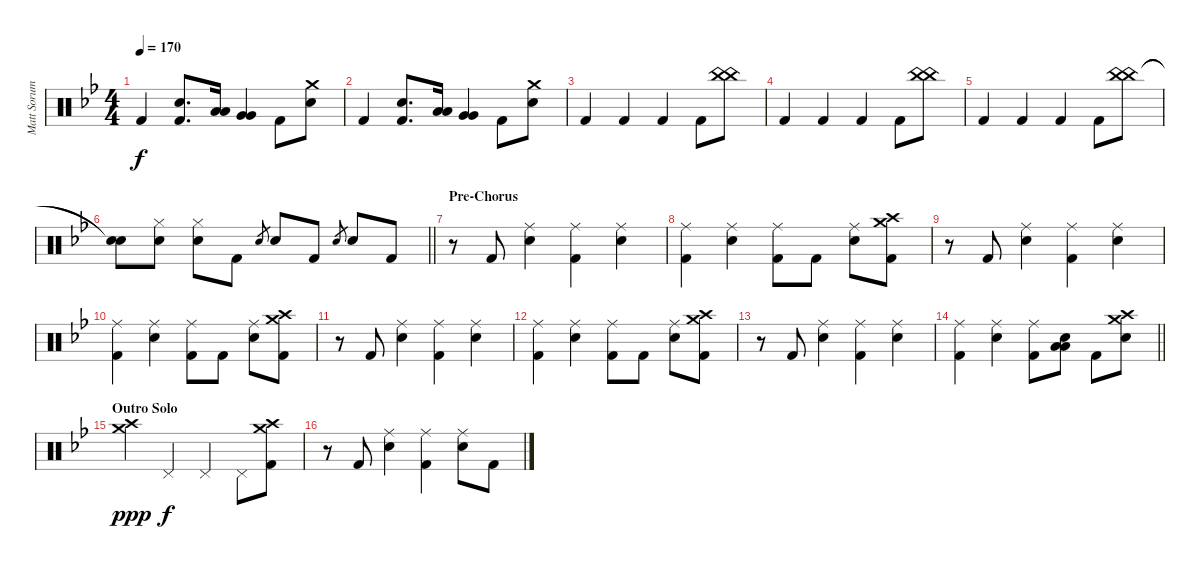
\track ("Matt Sorum - Drums" "Matt Sorum") {instrument percussion}
\staff {score}
\articulation defaults
\ts (4 4)
\tempo 170
\clef neutral
\ks bb "Kick (hit) 2".4{dy f}
("Snare (hit) 2" "Kick (hit) 2").8{d} ("Low Tom (hit)" "Low Tom (hit)").16 ("Very Low Tom (hit)" "Very Low Tom (hit)").4 "Kick (hit) 2".8 ("Crash medium (hit)" "Snare (hit) 2").8 |
"Kick (hit) 2".4 ("Snare (hit) 2" "Kick (hit) 2").8{d} ("Low Tom (hit)" "Low Tom (hit)").16 ("Very Low Tom (hit)" "Very Low Tom (hit)").4 "Kick (hit) 2".8 ("Crash medium (hit)" "Snare (hit) 2").8 |
"Kick (hit) 2".4 "Kick (hit) 2".4 "Kick (hit) 2".4 "Kick (hit) 2".8 ("China (hit)" "China (hit)").8 |
"Kick (hit) 2".4 "Kick (hit) 2".4 "Kick (hit) 2".4 "Kick (hit) 2".8 ("China (hit)" "China (hit)").8 |
"Kick (hit) 2".4 "Kick (hit) 2".4 "Kick (hit) 2".4 "Kick (hit) 2".8 ("China (hit)" "China (hit)").8 |
\barLineRight lightlight
("Snare (hit)"{t} "Snare (hit)"{t}).8 ("Hi-Hat (closed)" "Snare (hit) 2").8 ("Hi-Hat (closed)" "Snare (hit) 2").8 "Kick (hit) 2".8 "Snare (hit) 2".8{gr} "Snare (hit) 2".8 "Kick (hit) 2".8 "Snare (hit) 2".8{gr} "Snare (hit) 2".8 "Kick (hit) 2".8 |
\section ("" "Pre-Chorus")
r.8 "Kick (hit) 2".8 ("Ride (middle)" "Snare (hit) 2").4 ("Ride (middle)" "Kick (hit) 2").4 ("Ride (middle)" "Snare (hit) 2").4 |
("Ride (middle)" "Kick (hit) 2").4 ("Ride (middle)" "Snare (hit) 2").4 ("Ride (middle)" "Kick (hit) 2").8 "Kick (hit) 2".8 ("Ride (middle)" "Snare (hit) 2").8 ("Crash medium (hit)" "Crash high (hit)" "Kick (hit) 2").8 |
r.8 "Kick (hit) 2".8 ("Ride (middle)" "Snare (hit) 2").4 ("Ride (middle)" "Kick (hit) 2").4 ("Ride (middle)" "Snare (hit) 2").4 |
("Ride (middle)" "Kick (hit) 2").4 ("Ride (middle)" "Snare (hit) 2").4 ("Ride (middle)" "Kick (hit) 2").8 "Kick (hit) 2".8 ("Ride (middle)" "Snare (hit) 2").8 ("Crash medium (hit)" "Crash high (hit)" "Kick (hit) 2").8 |
r.8 "Kick (hit) 2".8 ("Ride (middle)" "Snare (hit) 2").4 ("Ride (middle)" "Kick (hit) 2").4 ("Ride (middle)" "Snare (hit) 2").4 |
("Ride (middle)" "Kick (hit) 2").4 ("Ride (middle)" "Snare (hit) 2").4 ("Ride (middle)" "Kick (hit) 2").8 "Kick (hit) 2".8 ("Ride (middle)" "Snare (hit) 2").8 ("Crash medium (hit)" "Crash high (hit)" "Kick (hit) 2").8 |
r.8 "Kick (hit) 2".8 ("Ride (middle)" "Snare (hit) 2").4 ("Ride (middle)" "Kick (hit) 2").4 ("Ride (middle)" "Snare (hit) 2").4 |
\barLineRight lightlight
("Ride (middle)" "Kick (hit) 2").4 ("Ride (middle)" "Snare (hit) 2").4 ("Ride (middle)" "Kick (hit) 2").8 ("Low Tom (hit)" "Low Tom (hit)" "Snare (hit) 2").8 "Kick (hit) 2".8 ("Crash medium (hit)" "Crash high (hit)" "Snare (hit) 2").8 |
\section ("" "Outro Solo")
("Crash medium (hit)" "Crash high (hit)").4{dy ppp} "Pedal Hi-Hat (hit)".4{dy f} "Pedal Hi-Hat (hit)".4 "Pedal Hi-Hat (hit)".8 ("Crash medium (hit)" "Crash high (hit)" "Kick (hit) 2").8 |
r.8 "Kick (hit) 2".8 ("Ride (middle)" "Snare (hit) 2").4 ("Ride (middle)" "Kick (hit) 2").4 ("Ride (middle)" "Snare (hit) 2").8 "Kick (hit) 2".8
